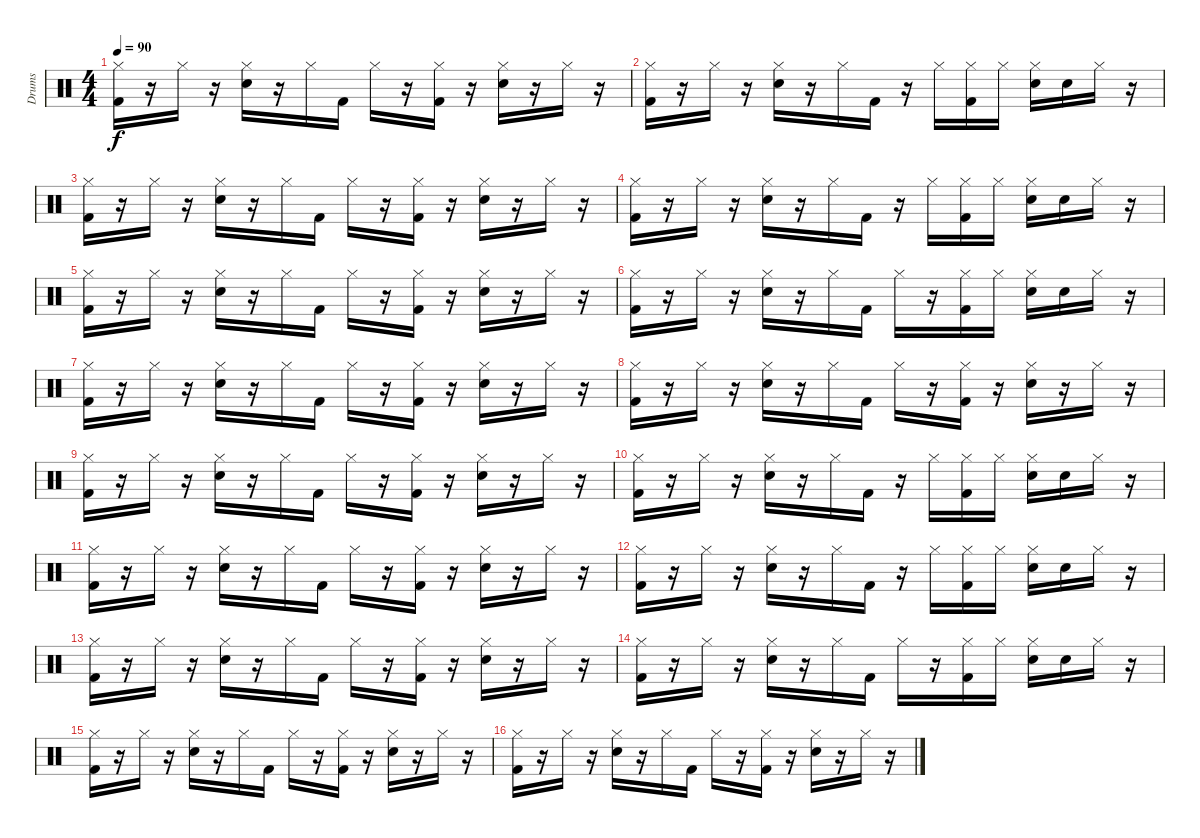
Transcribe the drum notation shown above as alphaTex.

\track ("Drums" "Drums") {instrument percussion}
\staff {score}
\articulation defaults
\ts (4 4)
\tempo 90
\clef neutral
\ks c
("Hi-Hat (closed)" "Kick (hit) 2").16{dy f} r.16 "Hi-Hat (closed)".16 r.16 ("Hi-Hat (closed)" "Electric Snare (hit)").16 r.16 "Hi-Hat (closed)".16 "Kick (hit) 2".16 "Hi-Hat (closed)".16 r.16 ("Hi-Hat (closed)" "Kick (hit) 2").16 r.16 ("Hi-Hat (closed)" "Electric Snare (hit)").16 r.16 "Hi-Hat (closed)".16 r.16 |
("Hi-Hat (closed)" "Kick (hit) 2").16 r.16 "Hi-Hat (closed)".16 r.16 ("Hi-Hat (closed)" "Electric Snare (hit)").16 r.16 "Hi-Hat (closed)".16 "Kick (hit) 2".16 r.16 "Hi-Hat (closed)".16 ("Hi-Hat (closed)" "Kick (hit) 2").16 "Hi-Hat (closed)".16 ("Hi-Hat (closed)" "Electric Snare (hit)").16 "Electric Snare (hit)".16 "Hi-Hat (closed)".16 r.16 |
("Hi-Hat (closed)" "Kick (hit) 2").16 r.16 "Hi-Hat (closed)".16 r.16 ("Hi-Hat (closed)" "Electric Snare (hit)").16 r.16 "Hi-Hat (closed)".16 "Kick (hit) 2".16 "Hi-Hat (closed)".16 r.16 ("Hi-Hat (closed)" "Kick (hit) 2").16 r.16 ("Hi-Hat (closed)" "Electric Snare (hit)").16 r.16 "Hi-Hat (closed)".16 r.16 |
("Hi-Hat (closed)" "Kick (hit) 2").16 r.16 "Hi-Hat (closed)".16 r.16 ("Hi-Hat (closed)" "Electric Snare (hit)").16 r.16 "Hi-Hat (closed)".16 "Kick (hit) 2".16 r.16 "Hi-Hat (closed)".16 ("Hi-Hat (closed)" "Kick (hit) 2").16 "Hi-Hat (closed)".16 ("Hi-Hat (closed)" "Electric Snare (hit)").16 "Electric Snare (hit)".16 "Hi-Hat (closed)".16 r.16 |
("Hi-Hat (closed)" "Kick (hit) 2").16 r.16 "Hi-Hat (closed)".16 r.16 ("Hi-Hat (closed)" "Electric Snare (hit)").16 r.16 "Hi-Hat (closed)".16 "Kick (hit) 2".16 "Hi-Hat (closed)".16 r.16 ("Hi-Hat (closed)" "Kick (hit) 2").16 r.16 ("Hi-Hat (closed)" "Electric Snare (hit)").16 r.16 "Hi-Hat (closed)".16 r.16 |
("Hi-Hat (closed)" "Kick (hit) 2").16 r.16 "Hi-Hat (closed)".16 r.16 ("Hi-Hat (closed)" "Electric Snare (hit)").16 r.16 "Hi-Hat (closed)".16 "Kick (hit) 2".16 "Hi-Hat (closed)".16 r.16 ("Hi-Hat (closed)" "Kick (hit) 2").16 "Hi-Hat (closed)".16 ("Hi-Hat (closed)" "Electric Snare (hit)").16 "Electric Snare (hit)".16 "Hi-Hat (closed)".16 r.16 |
("Hi-Hat (closed)" "Kick (hit) 2").16 r.16 "Hi-Hat (closed)".16 r.16 ("Hi-Hat (closed)" "Electric Snare (hit)").16 r.16 "Hi-Hat (closed)".16 "Kick (hit) 2".16 "Hi-Hat (closed)".16 r.16 ("Hi-Hat (closed)" "Kick (hit) 2").16 r.16 ("Hi-Hat (closed)" "Electric Snare (hit)").16 r.16 "Hi-Hat (closed)".16 r.16 |
("Hi-Hat (closed)" "Kick (hit) 2").16 r.16 "Hi-Hat (closed)".16 r.16 ("Hi-Hat (closed)" "Electric Snare (hit)").16 r.16 "Hi-Hat (closed)".16 "Kick (hit) 2".16 "Hi-Hat (closed)".16 r.16 ("Hi-Hat (closed)" "Kick (hit) 2").16 r.16 ("Hi-Hat (closed)" "Electric Snare (hit)").16 r.16 "Hi-Hat (closed)".16 r.16 |
("Hi-Hat (closed)" "Kick (hit) 2").16 r.16 "Hi-Hat (closed)".16 r.16 ("Hi-Hat (closed)" "Electric Snare (hit)").16 r.16 "Hi-Hat (closed)".16 "Kick (hit) 2".16 "Hi-Hat (closed)".16 r.16 ("Hi-Hat (closed)" "Kick (hit) 2").16 r.16 ("Hi-Hat (closed)" "Electric Snare (hit)").16 r.16 "Hi-Hat (closed)".16 r.16 |
("Hi-Hat (closed)" "Kick (hit) 2").16 r.16 "Hi-Hat (closed)".16 r.16 ("Hi-Hat (closed)" "Electric Snare (hit)").16 r.16 "Hi-Hat (closed)".16 "Kick (hit) 2".16 r.16 "Hi-Hat (closed)".16 ("Hi-Hat (closed)" "Kick (hit) 2").16 "Hi-Hat (closed)".16 ("Hi-Hat (closed)" "Electric Snare (hit)").16 "Electric Snare (hit)".16 "Hi-Hat (closed)".16 r.16 |
("Hi-Hat (closed)" "Kick (hit) 2").16 r.16 "Hi-Hat (closed)".16 r.16 ("Hi-Hat (closed)" "Electric Snare (hit)").16 r.16 "Hi-Hat (closed)".16 "Kick (hit) 2".16 "Hi-Hat (closed)".16 r.16 ("Hi-Hat (closed)" "Kick (hit) 2").16 r.16 ("Hi-Hat (closed)" "Electric Snare (hit)").16 r.16 "Hi-Hat (closed)".16 r.16 |
("Hi-Hat (closed)" "Kick (hit) 2").16 r.16 "Hi-Hat (closed)".16 r.16 ("Hi-Hat (closed)" "Electric Snare (hit)").16 r.16 "Hi-Hat (closed)".16 "Kick (hit) 2".16 r.16 "Hi-Hat (closed)".16 ("Hi-Hat (closed)" "Kick (hit) 2").16 "Hi-Hat (closed)".16 ("Hi-Hat (closed)" "Electric Snare (hit)").16 "Electric Snare (hit)".16 "Hi-Hat (closed)".16 r.16 |
("Hi-Hat (closed)" "Kick (hit) 2").16 r.16 "Hi-Hat (closed)".16 r.16 ("Hi-Hat (closed)" "Electric Snare (hit)").16 r.16 "Hi-Hat (closed)".16 "Kick (hit) 2".16 "Hi-Hat (closed)".16 r.16 ("Hi-Hat (closed)" "Kick (hit) 2").16 r.16 ("Hi-Hat (closed)" "Electric Snare (hit)").16 r.16 "Hi-Hat (closed)".16 r.16 |
("Hi-Hat (closed)" "Kick (hit) 2").16 r.16 "Hi-Hat (closed)".16 r.16 ("Hi-Hat (closed)" "Electric Snare (hit)").16 r.16 "Hi-Hat (closed)".16 "Kick (hit) 2".16 "Hi-Hat (closed)".16 r.16 ("Hi-Hat (closed)" "Kick (hit) 2").16 "Hi-Hat (closed)".16 ("Hi-Hat (closed)" "Electric Snare (hit)").16 "Electric Snare (hit)".16 "Hi-Hat (closed)".16 r.16 |
("Hi-Hat (closed)" "Kick (hit) 2").16 r.16 "Hi-Hat (closed)".16 r.16 ("Hi-Hat (closed)" "Electric Snare (hit)").16 r.16 "Hi-Hat (closed)".16 "Kick (hit) 2".16 "Hi-Hat (closed)".16 r.16 ("Hi-Hat (closed)" "Kick (hit) 2").16 r.16 ("Hi-Hat (closed)" "Electric Snare (hit)").16 r.16 "Hi-Hat (closed)".16 r.16 |
("Hi-Hat (closed)" "Kick (hit) 2").16 r.16 "Hi-Hat (closed)".16 r.16 ("Hi-Hat (closed)" "Electric Snare (hit)").16 r.16 "Hi-Hat (closed)".16 "Kick (hit) 2".16 "Hi-Hat (closed)".16 r.16 ("Hi-Hat (closed)" "Kick (hit) 2").16 r.16 ("Hi-Hat (closed)" "Electric Snare (hit)").16 r.16 "Hi-Hat (closed)".16 r.16
